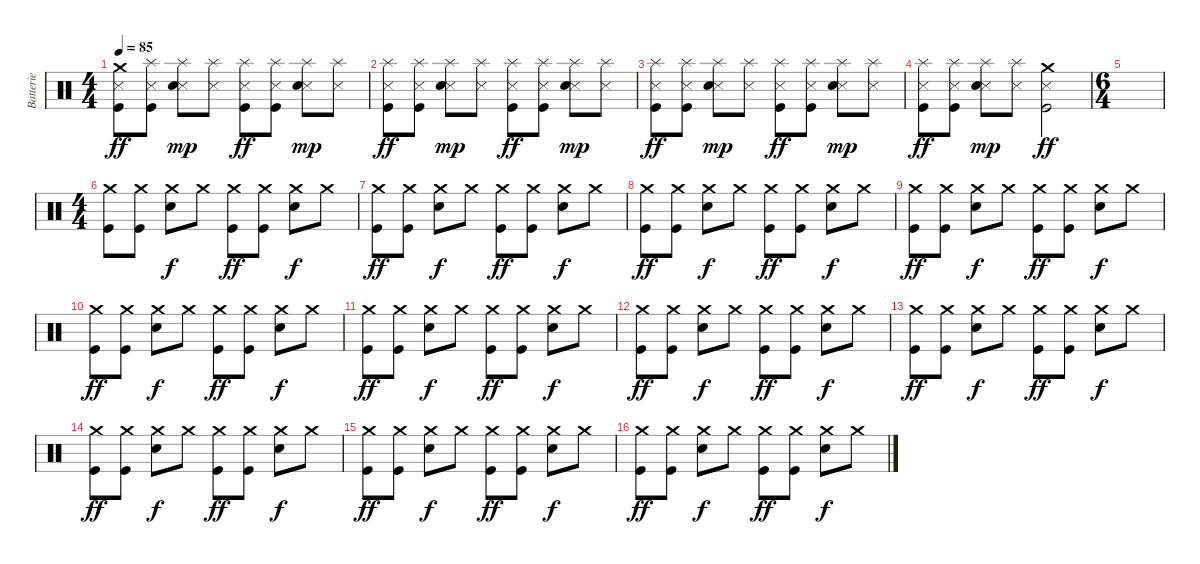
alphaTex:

\track ("Batterie" "Batterie") {instrument percussion}
\staff {score}
\articulation defaults
\ts (4 4)
\tempo 85
\clef neutral
\ks c
("Crash medium (hit)" "Snare (side stick) 3" "Kick (hit)").8{dy ff} ("Splash (hit)" "Snare (side stick) 3" "Kick (hit)").8 ("Splash (hit)" "Snare (side stick) 3" "Snare (hit) 2").8{dy mp} ("Splash (hit)" "Snare (side stick) 3").8 ("Splash (hit)" "Snare (side stick) 3" "Kick (hit)").8{dy ff} ("Splash (hit)" "Snare (side stick) 3" "Kick (hit)").8 ("Splash (hit)" "Snare (side stick) 3" "Snare (hit) 2").8{dy mp} ("Splash (hit)" "Snare (side stick) 3").8 |
("Splash (hit)" "Snare (side stick) 3" "Kick (hit)").8{dy ff} ("Splash (hit)" "Snare (side stick) 3" "Kick (hit)").8 ("Splash (hit)" "Snare (side stick) 3" "Snare (hit) 2").8{dy mp} ("Splash (hit)" "Snare (side stick) 3").8 ("Splash (hit)" "Snare (side stick) 3" "Kick (hit)").8{dy ff} ("Splash (hit)" "Snare (side stick) 3" "Kick (hit)").8 ("Splash (hit)" "Snare (side stick) 3" "Snare (hit) 2").8{dy mp} ("Splash (hit)" "Snare (side stick) 3").8 |
("Splash (hit)" "Snare (side stick) 3" "Kick (hit)").8{dy ff} ("Splash (hit)" "Snare (side stick) 3" "Kick (hit)").8 ("Splash (hit)" "Snare (side stick) 3" "Snare (hit) 2").8{dy mp} ("Splash (hit)" "Snare (side stick) 3").8 ("Splash (hit)" "Snare (side stick) 3" "Kick (hit)").8{dy ff} ("Splash (hit)" "Snare (side stick) 3" "Kick (hit)").8 ("Splash (hit)" "Snare (side stick) 3" "Snare (hit) 2").8{dy mp} ("Splash (hit)" "Snare (side stick) 3").8 |
("Splash (hit)" "Snare (side stick) 3" "Kick (hit)").8{dy ff} ("Splash (hit)" "Snare (side stick) 3" "Kick (hit)").8 ("Splash (hit)" "Snare (side stick) 3" "Snare (hit) 2").8{dy mp} ("Splash (hit)" "Snare (side stick) 3").8 ("Crash medium (hit)" "Snare (side stick) 3" "Kick (hit)").2{dy ff} |
\ts (6 4)
|
\ts (4 4)
("Crash medium (hit)" "Kick (hit)").8 ("Crash medium (hit)" "Kick (hit)").8 ("Crash medium (hit)" "Snare (hit) 2").8{dy f} "Crash medium (hit)".8 ("Crash medium (hit)" "Kick (hit)").8{dy ff} ("Crash medium (hit)" "Kick (hit)").8 ("Crash medium (hit)" "Snare (hit) 2").8{dy f} "Crash medium (hit)".8 |
("Crash medium (hit)" "Kick (hit)").8{dy ff} ("Crash medium (hit)" "Kick (hit)").8 ("Crash medium (hit)" "Snare (hit) 2").8{dy f} "Crash medium (hit)".8 ("Crash medium (hit)" "Kick (hit)").8{dy ff} ("Crash medium (hit)" "Kick (hit)").8 ("Crash medium (hit)" "Snare (hit) 2").8{dy f} "Crash medium (hit)".8 |
("Crash medium (hit)" "Kick (hit)").8{dy ff} ("Crash medium (hit)" "Kick (hit)").8 ("Crash medium (hit)" "Snare (hit) 2").8{dy f} "Crash medium (hit)".8 ("Crash medium (hit)" "Kick (hit)").8{dy ff} ("Crash medium (hit)" "Kick (hit)").8 ("Crash medium (hit)" "Snare (hit) 2").8{dy f} "Crash medium (hit)".8 |
("Crash medium (hit)" "Kick (hit)").8{dy ff} ("Crash medium (hit)" "Kick (hit)").8 ("Crash medium (hit)" "Snare (hit) 2").8{dy f} "Crash medium (hit)".8 ("Crash medium (hit)" "Kick (hit)").8{dy ff} ("Crash medium (hit)" "Kick (hit)").8 ("Crash medium (hit)" "Snare (hit) 2").8{dy f} "Crash medium (hit)".8 |
("Crash medium (hit)" "Kick (hit)").8{dy ff} ("Crash medium (hit)" "Kick (hit)").8 ("Crash medium (hit)" "Snare (hit) 2").8{dy f} "Crash medium (hit)".8 ("Crash medium (hit)" "Kick (hit)").8{dy ff} ("Crash medium (hit)" "Kick (hit)").8 ("Crash medium (hit)" "Snare (hit) 2").8{dy f} "Crash medium (hit)".8 |
("Crash medium (hit)" "Kick (hit)").8{dy ff} ("Crash medium (hit)" "Kick (hit)").8 ("Crash medium (hit)" "Snare (hit) 2").8{dy f} "Crash medium (hit)".8 ("Crash medium (hit)" "Kick (hit)").8{dy ff} ("Crash medium (hit)" "Kick (hit)").8 ("Crash medium (hit)" "Snare (hit) 2").8{dy f} "Crash medium (hit)".8 |
("Crash medium (hit)" "Kick (hit)").8{dy ff} ("Crash medium (hit)" "Kick (hit)").8 ("Crash medium (hit)" "Snare (hit) 2").8{dy f} "Crash medium (hit)".8 ("Crash medium (hit)" "Kick (hit)").8{dy ff} ("Crash medium (hit)" "Kick (hit)").8 ("Crash medium (hit)" "Snare (hit) 2").8{dy f} "Crash medium (hit)".8 |
("Crash medium (hit)" "Kick (hit)").8{dy ff} ("Crash medium (hit)" "Kick (hit)").8 ("Crash medium (hit)" "Snare (hit) 2").8{dy f} "Crash medium (hit)".8 ("Crash medium (hit)" "Kick (hit)").8{dy ff} ("Crash medium (hit)" "Kick (hit)").8 ("Crash medium (hit)" "Snare (hit) 2").8{dy f} "Crash medium (hit)".8 |
("Crash medium (hit)" "Kick (hit)").8{dy ff} ("Crash medium (hit)" "Kick (hit)").8 ("Crash medium (hit)" "Snare (hit) 2").8{dy f} "Crash medium (hit)".8 ("Crash medium (hit)" "Kick (hit)").8{dy ff} ("Crash medium (hit)" "Kick (hit)").8 ("Crash medium (hit)" "Snare (hit) 2").8{dy f} "Crash medium (hit)".8 |
("Crash medium (hit)" "Kick (hit)").8{dy ff} ("Crash medium (hit)" "Kick (hit)").8 ("Crash medium (hit)" "Snare (hit) 2").8{dy f} "Crash medium (hit)".8 ("Crash medium (hit)" "Kick (hit)").8{dy ff} ("Crash medium (hit)" "Kick (hit)").8 ("Crash medium (hit)" "Snare (hit) 2").8{dy f} "Crash medium (hit)".8 |
("Crash medium (hit)" "Kick (hit)").8{dy ff} ("Crash medium (hit)" "Kick (hit)").8 ("Crash medium (hit)" "Snare (hit) 2").8{dy f} "Crash medium (hit)".8 ("Crash medium (hit)" "Kick (hit)").8{dy ff} ("Crash medium (hit)" "Kick (hit)").8 ("Crash medium (hit)" "Snare (hit) 2").8{dy f} "Crash medium (hit)".8
